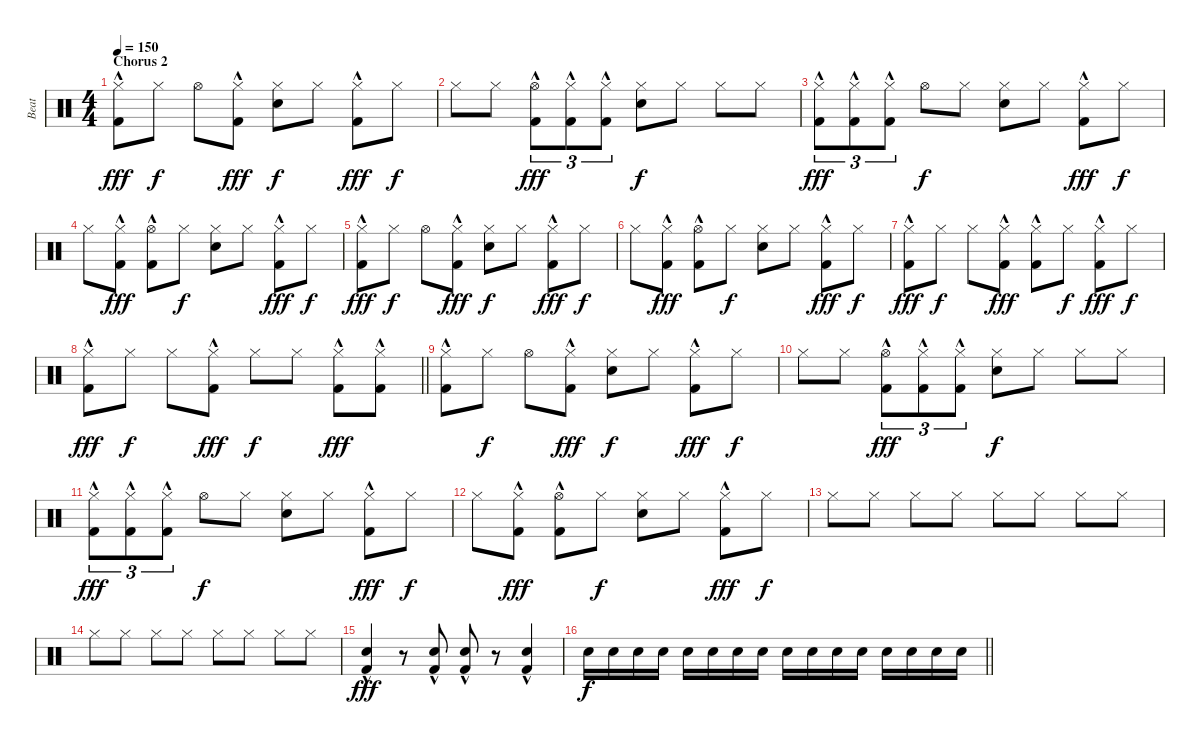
\track ("Beat" "Beat") {instrument percussion}
\staff {score}
\articulation defaults
\ts (4 4)
\section ("" "Chorus 2")
\tempo 150
\clef neutral
\ks c
("Hi-Hat (closed)" "Kick (hit) 2"{hac}).8{dy fff} "Hi-Hat (closed)".8{dy f} "Hi-Hat (open)".8 ("Hi-Hat (closed)" "Kick (hit) 2"{hac}).8{dy fff} ("Hi-Hat (closed)" "Hand Clap (hit)").8{dy f} "Hi-Hat (closed)".8 ("Hi-Hat (closed)" "Kick (hit) 2"{hac}).8{dy fff} "Hi-Hat (closed)".8{dy f} |
"Hi-Hat (closed)".8 "Hi-Hat (closed)".8 ("Hi-Hat (open)" "Kick (hit) 2"{hac}).8{tu (3 2) dy fff} ("Hi-Hat (closed)" "Kick (hit) 2"{hac}).8{tu (3 2)} ("Hi-Hat (closed)" "Kick (hit) 2"{hac}).8{tu (3 2)} ("Hi-Hat (closed)" "Hand Clap (hit)").8{dy f} "Hi-Hat (closed)".8 "Hi-Hat (closed)".8 "Hi-Hat (closed)".8 |
("Hi-Hat (closed)" "Kick (hit) 2"{hac}).8{tu (3 2) dy fff} ("Hi-Hat (closed)" "Kick (hit) 2"{hac}).8{tu (3 2)} ("Hi-Hat (closed)" "Kick (hit) 2"{hac}).8{tu (3 2)} "Hi-Hat (open)".8{dy f} "Hi-Hat (closed)".8 ("Hi-Hat (closed)" "Hand Clap (hit)").8 "Hi-Hat (closed)".8 ("Hi-Hat (closed)" "Kick (hit) 2"{hac}).8{dy fff} "Hi-Hat (closed)".8{dy f} |
"Hi-Hat (closed)".8 ("Hi-Hat (closed)" "Kick (hit) 2"{hac}).8{dy fff} ("Hi-Hat (open)" "Kick (hit) 2"{hac}).8 "Hi-Hat (closed)".8{dy f} ("Hi-Hat (closed)" "Hand Clap (hit)").8 "Hi-Hat (closed)".8 ("Hi-Hat (closed)" "Kick (hit) 2"{hac}).8{dy fff} "Hi-Hat (closed)".8{dy f} |
("Hi-Hat (closed)" "Kick (hit) 2"{hac}).8{dy fff} "Hi-Hat (closed)".8{dy f} "Hi-Hat (open)".8 ("Hi-Hat (closed)" "Kick (hit) 2"{hac}).8{dy fff} ("Hi-Hat (closed)" "Hand Clap (hit)").8{dy f} "Hi-Hat (closed)".8 ("Hi-Hat (closed)" "Kick (hit) 2"{hac}).8{dy fff} "Hi-Hat (closed)".8{dy f} |
"Hi-Hat (closed)".8 ("Hi-Hat (closed)" "Kick (hit) 2"{hac}).8{dy fff} ("Hi-Hat (open)" "Kick (hit) 2"{hac}).8 "Hi-Hat (closed)".8{dy f} ("Hi-Hat (closed)" "Hand Clap (hit)").8 "Hi-Hat (closed)".8 ("Hi-Hat (closed)" "Kick (hit) 2"{hac}).8{dy fff} "Hi-Hat (closed)".8{dy f} |
("Hi-Hat (closed)" "Kick (hit) 2"{hac}).8{dy fff} "Hi-Hat (closed)".8{dy f} "Hi-Hat (closed)".8 ("Hi-Hat (closed)" "Kick (hit) 2"{hac}).8{dy fff} ("Hi-Hat (closed)" "Kick (hit) 2"{hac}).8 "Hi-Hat (closed)".8{dy f} ("Hi-Hat (closed)" "Kick (hit) 2"{hac}).8{dy fff} "Hi-Hat (closed)".8{dy f} |
\barLineRight lightlight
("Hi-Hat (closed)" "Kick (hit) 2"{hac}).8{dy fff} "Hi-Hat (closed)".8{dy f} "Hi-Hat (closed)".8 ("Hi-Hat (closed)" "Kick (hit) 2"{hac}).8{dy fff} "Hi-Hat (closed)".8{dy f} "Hi-Hat (closed)".8 ("Hi-Hat (closed)" "Kick (hit) 2"{hac}).8{dy fff} ("Hi-Hat (closed)" "Kick (hit) 2"{hac}).8 |
("Hi-Hat (closed)" "Kick (hit) 2"{hac}).8 "Hi-Hat (closed)".8{dy f} "Hi-Hat (open)".8 ("Hi-Hat (closed)" "Kick (hit) 2"{hac}).8{dy fff} ("Hi-Hat (closed)" "Hand Clap (hit)").8{dy f} "Hi-Hat (closed)".8 ("Hi-Hat (closed)" "Kick (hit) 2"{hac}).8{dy fff} "Hi-Hat (closed)".8{dy f} |
"Hi-Hat (closed)".8 "Hi-Hat (closed)".8 ("Hi-Hat (open)" "Kick (hit) 2"{hac}).8{tu (3 2) dy fff} ("Hi-Hat (closed)" "Kick (hit) 2"{hac}).8{tu (3 2)} ("Hi-Hat (closed)" "Kick (hit) 2"{hac}).8{tu (3 2)} ("Hi-Hat (closed)" "Hand Clap (hit)").8{dy f} "Hi-Hat (closed)".8 "Hi-Hat (closed)".8 "Hi-Hat (closed)".8 |
("Hi-Hat (closed)" "Kick (hit) 2"{hac}).8{tu (3 2) dy fff} ("Hi-Hat (closed)" "Kick (hit) 2"{hac}).8{tu (3 2)} ("Hi-Hat (closed)" "Kick (hit) 2"{hac}).8{tu (3 2)} "Hi-Hat (open)".8{dy f} "Hi-Hat (closed)".8 ("Hi-Hat (closed)" "Hand Clap (hit)").8 "Hi-Hat (closed)".8 ("Hi-Hat (closed)" "Kick (hit) 2"{hac}).8{dy fff} "Hi-Hat (closed)".8{dy f} |
"Hi-Hat (closed)".8 ("Hi-Hat (closed)" "Kick (hit) 2"{hac}).8{dy fff} ("Hi-Hat (open)" "Kick (hit) 2"{hac}).8 "Hi-Hat (closed)".8{dy f} ("Hi-Hat (closed)" "Hand Clap (hit)").8 "Hi-Hat (closed)".8 ("Hi-Hat (closed)" "Kick (hit) 2"{hac}).8{dy fff} "Hi-Hat (closed)".8{dy f} |
"Hi-Hat (closed)".8 "Hi-Hat (closed)".8 "Hi-Hat (closed)".8 "Hi-Hat (closed)".8 "Hi-Hat (closed)".8 "Hi-Hat (closed)".8 "Hi-Hat (closed)".8 "Hi-Hat (closed)".8 |
"Hi-Hat (closed)".8 "Hi-Hat (closed)".8 "Hi-Hat (closed)".8 "Hi-Hat (closed)".8 "Hi-Hat (closed)".8 "Hi-Hat (closed)".8 "Hi-Hat (closed)".8 "Hi-Hat (closed)".8 |
("Snare (hit) 2" "Kick (hit) 2"{hac}).4{dy fff} r.8 ("Snare (hit) 2" "Kick (hit) 2"{hac}).8 ("Snare (hit) 2" "Kick (hit) 2"{hac}).8 r.8 ("Snare (hit) 2" "Kick (hit) 2"{hac}).4 |
\barLineRight lightlight "Snare (hit) 2".16{dy f} "Snare (hit) 2".16 "Snare (hit) 2".16 "Snare (hit) 2".16 "Snare (hit) 2".16 "Snare (hit) 2".16 "Snare (hit) 2".16 "Snare (hit) 2".16 "Snare (hit) 2".16 "Snare (hit) 2".16 "Snare (hit) 2".16 "Snare (hit) 2".16 "Snare (hit) 2".16 "Snare (hit) 2".16 "Snare (hit) 2".16 "Snare (hit) 2".16
